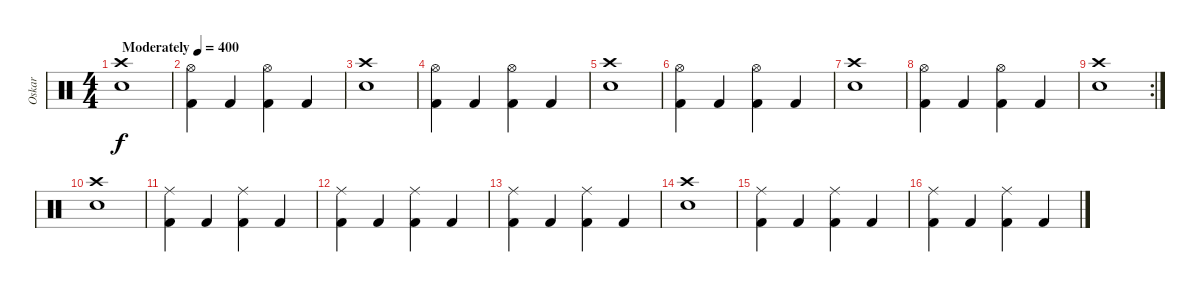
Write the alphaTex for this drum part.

\track ("Oskar" "Oskar") {instrument percussion}
\staff {score}
\articulation defaults
\ts (4 4)
\tempo (400 "Moderately")
\clef neutral
\ks c
("Crash high (hit)" "Electric Snare (hit)").1{dy f} |
("Hi-Hat (open)" "Kick (hit) 2").4 "Kick (hit) 2".4 ("Hi-Hat (open)" "Kick (hit) 2").4 "Kick (hit) 2".4 |
("Crash high (hit)" "Electric Snare (hit)").1 |
("Hi-Hat (open)" "Kick (hit) 2").4 "Kick (hit) 2".4 ("Hi-Hat (open)" "Kick (hit) 2").4 "Kick (hit) 2".4 |
("Crash high (hit)" "Electric Snare (hit)").1 |
("Hi-Hat (open)" "Kick (hit) 2").4 "Kick (hit) 2".4 ("Hi-Hat (open)" "Kick (hit) 2").4 "Kick (hit) 2".4 |
("Crash high (hit)" "Electric Snare (hit)").1 |
("Hi-Hat (open)" "Kick (hit) 2").4 "Kick (hit) 2".4 ("Hi-Hat (open)" "Kick (hit) 2").4 "Kick (hit) 2".4 |
\rc 2
("Crash high (hit)" "Electric Snare (hit)").1 |
("Crash high (hit)" "Electric Snare (hit)").1 |
("Ride (middle)" "Kick (hit) 2").4 "Kick (hit) 2".4 ("Ride (middle)" "Kick (hit) 2").4 "Kick (hit) 2".4 |
("Ride (middle)" "Kick (hit) 2").4 "Kick (hit) 2".4 ("Ride (middle)" "Kick (hit) 2").4 "Kick (hit) 2".4 |
("Ride (middle)" "Kick (hit) 2").4 "Kick (hit) 2".4 ("Ride (middle)" "Kick (hit) 2").4 "Kick (hit) 2".4 |
("Crash high (hit)" "Electric Snare (hit)").1 |
("Ride (middle)" "Kick (hit) 2").4 "Kick (hit) 2".4 ("Ride (middle)" "Kick (hit) 2").4 "Kick (hit) 2".4 |
("Ride (middle)" "Kick (hit) 2").4 "Kick (hit) 2".4 ("Ride (middle)" "Kick (hit) 2").4 "Kick (hit) 2".4
